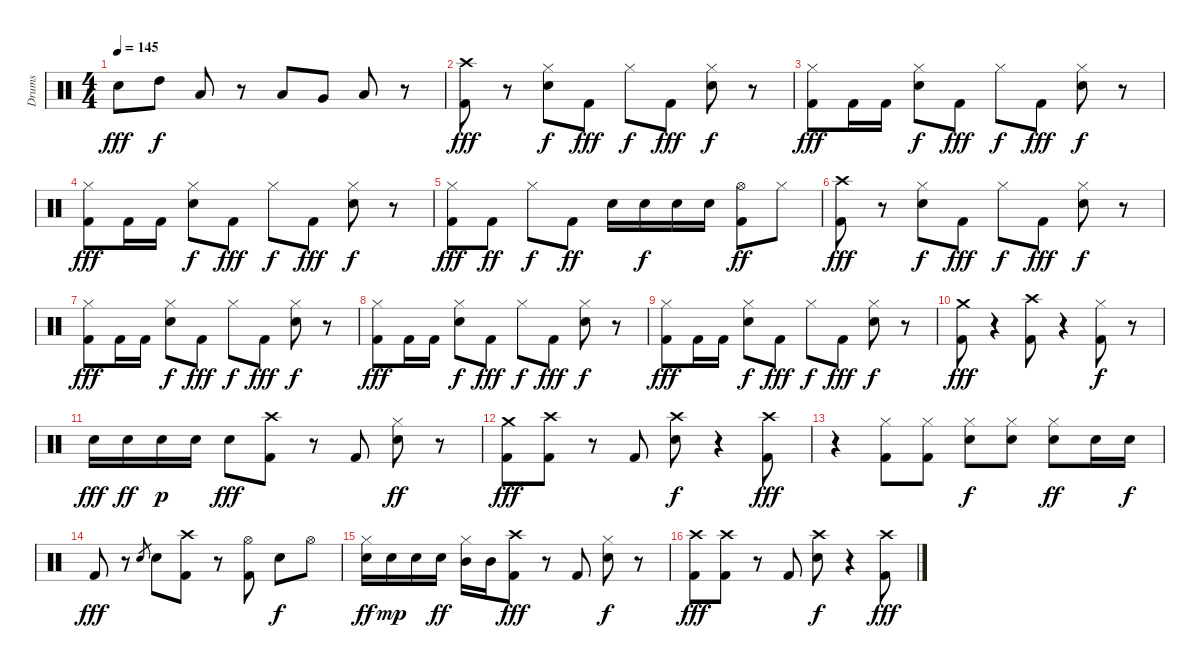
\track ("Drums" "Drums") {instrument percussion}
\staff {score}
\articulation defaults
\ts (4 4)
\tempo 145
\clef neutral
\ks c "Snare (hit) 2".8{dy fff} "High Tom (hit)".8{dy f} "Low Tom (hit)".8
r.8 "Low Tom (hit)".8 "Very Low Tom (hit)".8 "Low Floor Tom (hit)".8 r.8 |
("Kick (hit) 2" "Crash high (hit)").8{dy fff} r.8 ("Snare (hit) 2" "Hi-Hat (closed)").8{dy f} "Kick (hit) 2".8{dy fff} "Hi-Hat (closed)".8{dy f} "Kick (hit) 2".8{dy fff} ("Snare (hit) 2" "Hi-Hat (closed)").8{dy f} r.8 |
("Kick (hit) 2" "Hi-Hat (closed)").8{dy fff} "Kick (hit) 2".16 "Kick (hit) 2".16 ("Snare (hit) 2" "Hi-Hat (closed)").8{dy f} "Kick (hit) 2".8{dy fff} "Hi-Hat (closed)".8{dy f} "Kick (hit) 2".8{dy fff} ("Snare (hit) 2" "Hi-Hat (closed)").8{dy f} r.8 |
("Kick (hit) 2" "Hi-Hat (closed)").8{dy fff} "Kick (hit) 2".16 "Kick (hit) 2".16 ("Snare (hit) 2" "Hi-Hat (closed)").8{dy f} "Kick (hit) 2".8{dy fff} "Hi-Hat (closed)".8{dy f} "Kick (hit) 2".8{dy fff} ("Snare (hit) 2" "Hi-Hat (closed)").8{dy f} r.8 |
("Kick (hit) 2" "Hi-Hat (closed)").8{dy fff} "Kick (hit) 2".8{dy ff} "Hi-Hat (closed)".8{dy f} "Kick (hit) 2".8{dy ff} "Snare (hit) 2".16 "Snare (hit) 2".16{dy f} "Snare (hit) 2".16 "Snare (hit) 2".16 ("Kick (hit) 2" "Hi-Hat (open)").8{dy ff} "Hi-Hat (closed)".8 |
("Kick (hit) 2" "Crash high (hit)").8{dy fff} r.8 ("Snare (hit) 2" "Hi-Hat (closed)").8{dy f} "Kick (hit) 2".8{dy fff} "Hi-Hat (closed)".8{dy f} "Kick (hit) 2".8{dy fff} ("Snare (hit) 2" "Hi-Hat (closed)").8{dy f} r.8 |
("Kick (hit) 2" "Hi-Hat (closed)").8{dy fff} "Kick (hit) 2".16 "Kick (hit) 2".16 ("Snare (hit) 2" "Hi-Hat (closed)").8{dy f} "Kick (hit) 2".8{dy fff} "Hi-Hat (closed)".8{dy f} "Kick (hit) 2".8{dy fff} ("Snare (hit) 2" "Hi-Hat (closed)").8{dy f} r.8 |
("Kick (hit) 2" "Hi-Hat (closed)").8{dy fff} "Kick (hit) 2".16 "Kick (hit) 2".16 ("Snare (hit) 2" "Hi-Hat (closed)").8{dy f} "Kick (hit) 2".8{dy fff} "Hi-Hat (closed)".8{dy f} "Kick (hit) 2".8{dy fff} ("Snare (hit) 2" "Hi-Hat (closed)").8{dy f} r.8 |
("Kick (hit) 2" "Hi-Hat (closed)").8{dy fff} "Kick (hit) 2".16 "Kick (hit) 2".16 ("Snare (hit) 2" "Hi-Hat (closed)").8{dy f} "Kick (hit) 2".8{dy fff} "Hi-Hat (closed)".8{dy f} "Kick (hit) 2".8{dy fff} ("Snare (hit) 2" "Hi-Hat (closed)").8{dy f} r.8 |
("Kick (hit) 2" "Crash medium (hit)").8{dy fff} r.4 ("Kick (hit) 2" "Crash high (hit)").8 r.4 ("Kick (hit) 2" "Hi-Hat (closed)").8{dy f} r.8 |
"Snare (hit) 2".16{dy fff} "Snare (hit) 2".16{dy ff} "Snare (hit) 2".16{dy p} "Snare (hit) 2".16 "Snare (hit) 2".8{dy fff} ("Kick (hit) 2" "Crash high (hit)").8 r.8 "Kick (hit) 2".8 ("Snare (hit) 2" "Hi-Hat (closed)").8{dy ff} r.8 |
("Kick (hit) 2" "Crash medium (hit)").8{dy fff} ("Kick (hit) 2" "Crash high (hit)").8 r.8 "Kick (hit) 2".8 ("Snare (hit) 2" "Crash high (hit)").8{dy f} r.4 ("Kick (hit) 2" "Crash high (hit)").8{dy fff} |
r.4 ("Kick (hit) 2" "Hi-Hat (closed)").8 ("Kick (hit) 2" "Hi-Hat (closed)").8 ("Snare (hit) 2" "Hi-Hat (closed)").8{dy f} ("Snare (hit) 2" "Hi-Hat (closed)").8 ("Snare (hit) 2" "Hi-Hat (closed)").8{dy ff} "Snare (hit) 2".16 "Snare (hit) 2".16{dy f} |
"Kick (hit) 2".8{dy fff} r.8 "Snare (hit) 2".8{gr} "Snare (hit) 2".8 ("Kick (hit) 2" "Crash high (hit)").8 r.8 ("Kick (hit) 2" "Hi-Hat (open)").8 "Snare (hit) 2".8{dy f} "Hi-Hat (open)".8 |
("Snare (hit) 2" "Hi-Hat (closed)").16{dy ff} "Snare (hit) 2".16{dy mp} "Snare (hit) 2".16 "Snare (hit) 2".16{dy ff} ("Mid Tom (hit)" "Hi-Hat (closed)").16 "Mid Tom (hit)".16 ("Kick (hit) 2" "Crash high (hit)").8{dy fff} r.8 "Kick (hit) 2".8 ("Snare (hit) 2" "Hi-Hat (closed)").8{dy f} r.8 |
("Kick (hit) 2" "Crash high (hit)").8{dy fff} ("Kick (hit) 2" "Crash high (hit)").8 r.8 "Kick (hit) 2".8 ("Snare (hit) 2" "Crash high (hit)").8{dy f} r.4 ("Kick (hit) 2" "Crash high (hit)").8{dy fff}
